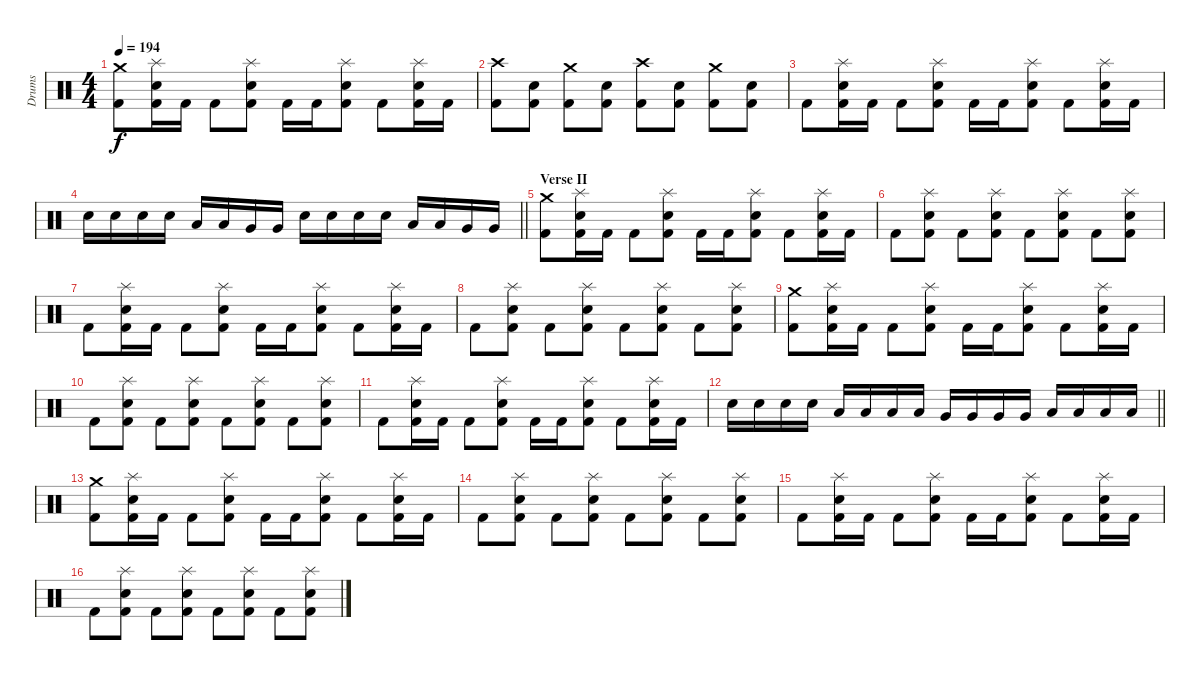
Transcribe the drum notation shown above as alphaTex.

\track ("Drums" "Drums") {instrument percussion}
\staff {score}
\articulation defaults
\ts (4 4)
\tempo 194
\clef neutral
\ks c
("Kick (hit) 2" "Crash medium (hit)").8{dy f} ("Kick (hit) 2" "Snare (hit) 2" "Splash (hit)").16 "Kick (hit) 2".16 "Kick (hit) 2".8 ("Kick (hit) 2" "Snare (hit) 2" "Splash (hit)").8 "Kick (hit) 2".16 "Kick (hit) 2".16 ("Kick (hit) 2" "Snare (hit) 2" "Splash (hit)").8 "Kick (hit) 2".8 ("Kick (hit) 2" "Snare (hit) 2" "Splash (hit)").16 "Kick (hit) 2".16 |
("Kick (hit) 2" "Crash high (hit)").8 ("Kick (hit) 2" "Snare (hit) 2").8 ("Kick (hit) 2" "Crash medium (hit)").8 ("Kick (hit) 2" "Snare (hit) 2").8 ("Kick (hit) 2" "Crash high (hit)").8 ("Kick (hit) 2" "Snare (hit) 2").8 ("Kick (hit) 2" "Crash medium (hit)").8 ("Kick (hit) 2" "Snare (hit) 2").8 |
"Kick (hit) 2".8 ("Kick (hit) 2" "Snare (hit) 2" "Splash (hit)").16 "Kick (hit) 2".16 "Kick (hit) 2".8 ("Kick (hit) 2" "Snare (hit) 2" "Splash (hit)").8 "Kick (hit) 2".16 "Kick (hit) 2".16 ("Kick (hit) 2" "Snare (hit) 2" "Splash (hit)").8 "Kick (hit) 2".8 ("Kick (hit) 2" "Snare (hit) 2" "Splash (hit)").16 "Kick (hit) 2".16 |
\barLineRight lightlight "Snare (hit) 2".16 "Snare (hit) 2".16 "Snare (hit) 2".16 "Snare (hit) 2".16 "Low Tom (hit)".16 "Low Tom (hit)".16 "Very Low Tom (hit)".16 "Very Low Tom (hit)".16 "Snare (hit) 2".16 "Snare (hit) 2".16 "Snare (hit) 2".16 "Snare (hit) 2".16 "Low Tom (hit)".16 "Low Tom (hit)".16 "Very Low Tom (hit)".16 "Very Low Tom (hit)".16
|
\section ("" "Verse II")
("Kick (hit) 2" "Crash medium (hit)").8 ("Kick (hit) 2" "Snare (hit) 2" "Splash (hit)").16 "Kick (hit) 2".16 "Kick (hit) 2".8 ("Kick (hit) 2" "Snare (hit) 2" "Splash (hit)").8 "Kick (hit) 2".16 "Kick (hit) 2".16 ("Kick (hit) 2" "Snare (hit) 2" "Splash (hit)").8 "Kick (hit) 2".8 ("Kick (hit) 2" "Snare (hit) 2" "Splash (hit)").16 "Kick (hit) 2".16 |
"Kick (hit) 2".8 ("Kick (hit) 2" "Snare (hit) 2" "Splash (hit)").8 "Kick (hit) 2".8 ("Kick (hit) 2" "Snare (hit) 2" "Splash (hit)").8 "Kick (hit) 2".8 ("Kick (hit) 2" "Snare (hit) 2" "Splash (hit)").8 "Kick (hit) 2".8 ("Kick (hit) 2" "Snare (hit) 2" "Splash (hit)").8 |
"Kick (hit) 2".8 ("Kick (hit) 2" "Snare (hit) 2" "Splash (hit)").16 "Kick (hit) 2".16 "Kick (hit) 2".8 ("Kick (hit) 2" "Snare (hit) 2" "Splash (hit)").8 "Kick (hit) 2".16 "Kick (hit) 2".16 ("Kick (hit) 2" "Snare (hit) 2" "Splash (hit)").8 "Kick (hit) 2".8 ("Kick (hit) 2" "Snare (hit) 2" "Splash (hit)").16 "Kick (hit) 2".16 |
"Kick (hit) 2".8 ("Kick (hit) 2" "Snare (hit) 2" "Splash (hit)").8 "Kick (hit) 2".8 ("Kick (hit) 2" "Snare (hit) 2" "Splash (hit)").8 "Kick (hit) 2".8 ("Kick (hit) 2" "Snare (hit) 2" "Splash (hit)").8 "Kick (hit) 2".8 ("Kick (hit) 2" "Snare (hit) 2" "Splash (hit)").8 |
("Kick (hit) 2" "Crash medium (hit)").8 ("Kick (hit) 2" "Snare (hit) 2" "Splash (hit)").16 "Kick (hit) 2".16 "Kick (hit) 2".8 ("Kick (hit) 2" "Snare (hit) 2" "Splash (hit)").8 "Kick (hit) 2".16 "Kick (hit) 2".16 ("Kick (hit) 2" "Snare (hit) 2" "Splash (hit)").8 "Kick (hit) 2".8 ("Kick (hit) 2" "Snare (hit) 2" "Splash (hit)").16 "Kick (hit) 2".16 |
"Kick (hit) 2".8 ("Kick (hit) 2" "Snare (hit) 2" "Splash (hit)").8 "Kick (hit) 2".8 ("Kick (hit) 2" "Snare (hit) 2" "Splash (hit)").8 "Kick (hit) 2".8 ("Kick (hit) 2" "Snare (hit) 2" "Splash (hit)").8 "Kick (hit) 2".8 ("Kick (hit) 2" "Snare (hit) 2" "Splash (hit)").8 |
"Kick (hit) 2".8 ("Kick (hit) 2" "Snare (hit) 2" "Splash (hit)").16 "Kick (hit) 2".16 "Kick (hit) 2".8 ("Kick (hit) 2" "Snare (hit) 2" "Splash (hit)").8 "Kick (hit) 2".16 "Kick (hit) 2".16 ("Kick (hit) 2" "Snare (hit) 2" "Splash (hit)").8 "Kick (hit) 2".8 ("Kick (hit) 2" "Snare (hit) 2" "Splash (hit)").16 "Kick (hit) 2".16 |
\barLineRight lightlight "Snare (hit) 2".16 "Snare (hit) 2".16 "Snare (hit) 2".16 "Snare (hit) 2".16 "Low Tom (hit)".16 "Low Tom (hit)".16 "Low Tom (hit)".16 "Low Tom (hit)".16 "Very Low Tom (hit)".16 "Very Low Tom (hit)".16 "Very Low Tom (hit)".16 "Very Low Tom (hit)".16 "Low Floor Tom (hit)".16 "Low Floor Tom (hit)".16 "Low Floor Tom (hit)".16 "Low Floor Tom (hit)".16
|
\section ("" "")
("Kick (hit) 2" "Crash medium (hit)").8 ("Kick (hit) 2" "Snare (hit) 2" "Splash (hit)").16 "Kick (hit) 2".16 "Kick (hit) 2".8 ("Kick (hit) 2" "Snare (hit) 2" "Splash (hit)").8 "Kick (hit) 2".16 "Kick (hit) 2".16 ("Kick (hit) 2" "Snare (hit) 2" "Splash (hit)").8 "Kick (hit) 2".8 ("Kick (hit) 2" "Snare (hit) 2" "Splash (hit)").16 "Kick (hit) 2".16 |
"Kick (hit) 2".8 ("Kick (hit) 2" "Snare (hit) 2" "Splash (hit)").8 "Kick (hit) 2".8 ("Kick (hit) 2" "Snare (hit) 2" "Splash (hit)").8 "Kick (hit) 2".8 ("Kick (hit) 2" "Snare (hit) 2" "Splash (hit)").8 "Kick (hit) 2".8 ("Kick (hit) 2" "Snare (hit) 2" "Splash (hit)").8 |
"Kick (hit) 2".8 ("Kick (hit) 2" "Snare (hit) 2" "Splash (hit)").16 "Kick (hit) 2".16 "Kick (hit) 2".8 ("Kick (hit) 2" "Snare (hit) 2" "Splash (hit)").8 "Kick (hit) 2".16 "Kick (hit) 2".16 ("Kick (hit) 2" "Snare (hit) 2" "Splash (hit)").8 "Kick (hit) 2".8 ("Kick (hit) 2" "Snare (hit) 2" "Splash (hit)").16 "Kick (hit) 2".16 |
"Kick (hit) 2".8 ("Kick (hit) 2" "Snare (hit) 2" "Splash (hit)").8 "Kick (hit) 2".8 ("Kick (hit) 2" "Snare (hit) 2" "Splash (hit)").8 "Kick (hit) 2".8 ("Kick (hit) 2" "Snare (hit) 2" "Splash (hit)").8 "Kick (hit) 2".8 ("Kick (hit) 2" "Snare (hit) 2" "Splash (hit)").8
